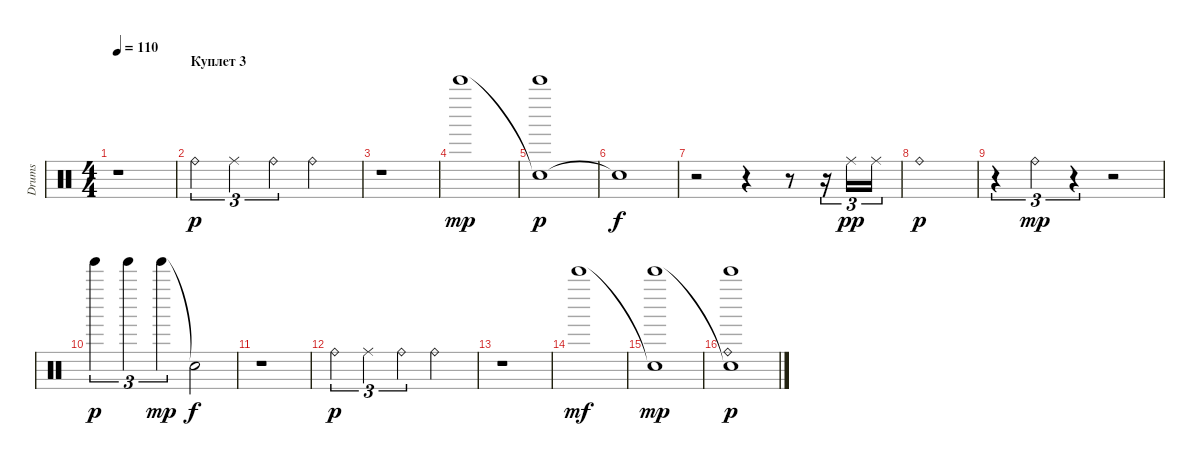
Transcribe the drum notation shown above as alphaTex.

\track ("Drums" "Drums") {instrument percussion}
\staff {score}
\articulation defaults
\ts (4 4)
\tempo 110
\clef neutral
\ks c
r.1{dy p} |
\section ("" "Куплет 3")
"Ride (bell)".4{tu (3 2)} "Ride (middle)".4{tu (3 2)} "Ride (bell)".4{tu (3 2)} "Ride (bell)".2 |
r.1 |
"Bell Tree (hit)".1{dy mp} |
("Snare (hit)"{t} "Bell Tree (hit)").1{dy p} |
"Snare (hit)"{t}.1{dy f} |
r.2 r.4 r.8 r.16{tu (3 2)} "Ride (middle)".16{tu (3 2) dy pp} "Ride (middle)".16{tu (3 2)} |
"Ride (bell)".1{dy p} |
r.4{tu (3 2)} "Ride (bell)".4{tu (3 2) dy mp} r.4{tu (3 2)} r.2 |
"Tinkle Bell (hit)".4{tu (3 2) dy p} "Tinkle Bell (hit)".4{tu (3 2)} "Tinkle Bell (hit)".4{tu (3 2) dy mp} "Snare (hit)"{t}.2{dy f} |
r.1 |
"Ride (bell)".4{tu (3 2) dy p} "Ride (middle)".4{tu (3 2)} "Ride (bell)".4{tu (3 2)} "Ride (bell)".2 |
r.1 |
"Bell Tree (hit)".1{dy mf} |
("Snare (hit)"{t} "Bell Tree (hit)").1{dy mp} |
("Ride (bell)" "Snare (hit)"{t} "Bell Tree (hit)").1{dy p}
